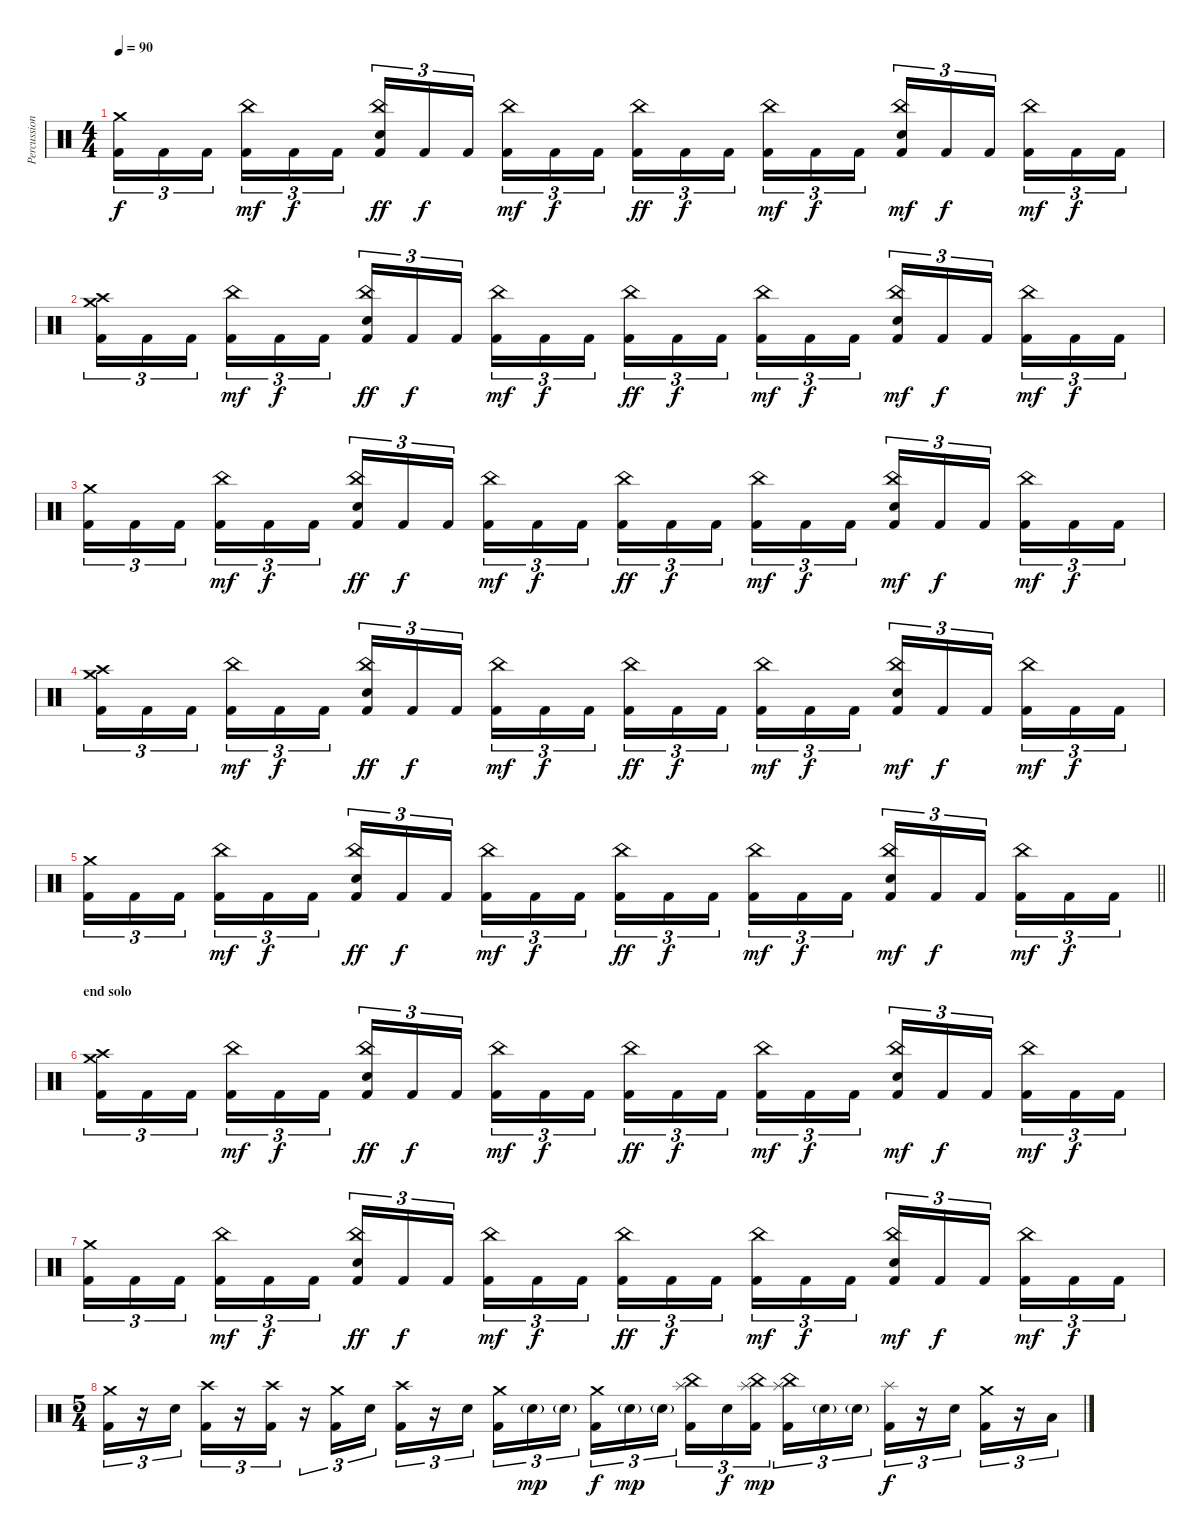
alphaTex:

\track ("Percussion" "Percussion") {instrument percussion}
\staff {score}
\articulation defaults
\ts (4 4)
\tempo 90
\clef neutral
\ks c
("Crash medium (hit)" "Kick (hit) 2").16{tu (3 2) dy f} "Kick (hit) 2".16{tu (3 2)} "Kick (hit) 2".16{tu (3 2) beam splitsecondary} ("China (hit)" "Kick (hit) 2").16{tu (3 2) dy mf} "Kick (hit) 2".16{tu (3 2) dy f} "Kick (hit) 2".16{tu (3 2)} ("China (hit)" "Electric Snare (hit)" "Kick (hit) 2").16{tu (3 2) dy ff} "Kick (hit) 2".16{tu (3 2) dy f} "Kick (hit) 2".16{tu (3 2) beam splitsecondary} ("China (hit)" "Kick (hit) 2").16{tu (3 2) dy mf} "Kick (hit) 2".16{tu (3 2) dy f} "Kick (hit) 2".16{tu (3 2)} ("China (hit)" "Kick (hit) 2").16{tu (3 2) dy ff} "Kick (hit) 2".16{tu (3 2) dy f} "Kick (hit) 2".16{tu (3 2) beam splitsecondary} ("China (hit)" "Kick (hit) 2").16{tu (3 2) dy mf} "Kick (hit) 2".16{tu (3 2) dy f} "Kick (hit) 2".16{tu (3 2)} ("China (hit)" "Electric Snare (hit)" "Kick (hit) 2").16{tu (3 2) dy mf} "Kick (hit) 2".16{tu (3 2) dy f} "Kick (hit) 2".16{tu (3 2) beam splitsecondary} ("China (hit)" "Kick (hit) 2").16{tu (3 2) dy mf} "Kick (hit) 2".16{tu (3 2) dy f} "Kick (hit) 2".16{tu (3 2)} |
("Crash medium (hit)" "Crash high (hit)" "Kick (hit) 2").16{tu (3 2)} "Kick (hit) 2".16{tu (3 2)} "Kick (hit) 2".16{tu (3 2) beam splitsecondary} ("China (hit)" "Kick (hit) 2").16{tu (3 2) dy mf} "Kick (hit) 2".16{tu (3 2) dy f} "Kick (hit) 2".16{tu (3 2)} ("China (hit)" "Electric Snare (hit)" "Kick (hit) 2").16{tu (3 2) dy ff} "Kick (hit) 2".16{tu (3 2) dy f} "Kick (hit) 2".16{tu (3 2) beam splitsecondary} ("China (hit)" "Kick (hit) 2").16{tu (3 2) dy mf} "Kick (hit) 2".16{tu (3 2) dy f} "Kick (hit) 2".16{tu (3 2)} ("China (hit)" "Kick (hit) 2").16{tu (3 2) dy ff} "Kick (hit) 2".16{tu (3 2) dy f} "Kick (hit) 2".16{tu (3 2) beam splitsecondary} ("China (hit)" "Kick (hit) 2").16{tu (3 2) dy mf} "Kick (hit) 2".16{tu (3 2) dy f} "Kick (hit) 2".16{tu (3 2)} ("China (hit)" "Electric Snare (hit)" "Kick (hit) 2").16{tu (3 2) dy mf} "Kick (hit) 2".16{tu (3 2) dy f} "Kick (hit) 2".16{tu (3 2) beam splitsecondary} ("China (hit)" "Kick (hit) 2").16{tu (3 2) dy mf} "Kick (hit) 2".16{tu (3 2) dy f} "Kick (hit) 2".16{tu (3 2)} |
("Crash medium (hit)" "Kick (hit) 2").16{tu (3 2)} "Kick (hit) 2".16{tu (3 2)} "Kick (hit) 2".16{tu (3 2) beam splitsecondary} ("China (hit)" "Kick (hit) 2").16{tu (3 2) dy mf} "Kick (hit) 2".16{tu (3 2) dy f} "Kick (hit) 2".16{tu (3 2)} ("China (hit)" "Electric Snare (hit)" "Kick (hit) 2").16{tu (3 2) dy ff} "Kick (hit) 2".16{tu (3 2) dy f} "Kick (hit) 2".16{tu (3 2) beam splitsecondary} ("China (hit)" "Kick (hit) 2").16{tu (3 2) dy mf} "Kick (hit) 2".16{tu (3 2) dy f} "Kick (hit) 2".16{tu (3 2)} ("China (hit)" "Kick (hit) 2").16{tu (3 2) dy ff} "Kick (hit) 2".16{tu (3 2) dy f} "Kick (hit) 2".16{tu (3 2) beam splitsecondary} ("China (hit)" "Kick (hit) 2").16{tu (3 2) dy mf} "Kick (hit) 2".16{tu (3 2) dy f} "Kick (hit) 2".16{tu (3 2)} ("China (hit)" "Electric Snare (hit)" "Kick (hit) 2").16{tu (3 2) dy mf} "Kick (hit) 2".16{tu (3 2) dy f} "Kick (hit) 2".16{tu (3 2) beam splitsecondary} ("China (hit)" "Kick (hit) 2").16{tu (3 2) dy mf} "Kick (hit) 2".16{tu (3 2) dy f} "Kick (hit) 2".16{tu (3 2)} |
("Crash medium (hit)" "Crash high (hit)" "Kick (hit) 2").16{tu (3 2)} "Kick (hit) 2".16{tu (3 2)} "Kick (hit) 2".16{tu (3 2) beam splitsecondary} ("China (hit)" "Kick (hit) 2").16{tu (3 2) dy mf} "Kick (hit) 2".16{tu (3 2) dy f} "Kick (hit) 2".16{tu (3 2)} ("China (hit)" "Electric Snare (hit)" "Kick (hit) 2").16{tu (3 2) dy ff} "Kick (hit) 2".16{tu (3 2) dy f} "Kick (hit) 2".16{tu (3 2) beam splitsecondary} ("China (hit)" "Kick (hit) 2").16{tu (3 2) dy mf} "Kick (hit) 2".16{tu (3 2) dy f} "Kick (hit) 2".16{tu (3 2)} ("China (hit)" "Kick (hit) 2").16{tu (3 2) dy ff} "Kick (hit) 2".16{tu (3 2) dy f} "Kick (hit) 2".16{tu (3 2) beam splitsecondary} ("China (hit)" "Kick (hit) 2").16{tu (3 2) dy mf} "Kick (hit) 2".16{tu (3 2) dy f} "Kick (hit) 2".16{tu (3 2)} ("China (hit)" "Electric Snare (hit)" "Kick (hit) 2").16{tu (3 2) dy mf} "Kick (hit) 2".16{tu (3 2) dy f} "Kick (hit) 2".16{tu (3 2) beam splitsecondary} ("China (hit)" "Kick (hit) 2").16{tu (3 2) dy mf} "Kick (hit) 2".16{tu (3 2) dy f} "Kick (hit) 2".16{tu (3 2)} |
\barLineRight lightlight
("Crash medium (hit)" "Kick (hit) 2").16{tu (3 2)} "Kick (hit) 2".16{tu (3 2)} "Kick (hit) 2".16{tu (3 2) beam splitsecondary} ("China (hit)" "Kick (hit) 2").16{tu (3 2) dy mf} "Kick (hit) 2".16{tu (3 2) dy f} "Kick (hit) 2".16{tu (3 2)} ("China (hit)" "Electric Snare (hit)" "Kick (hit) 2").16{tu (3 2) dy ff} "Kick (hit) 2".16{tu (3 2) dy f} "Kick (hit) 2".16{tu (3 2) beam splitsecondary} ("China (hit)" "Kick (hit) 2").16{tu (3 2) dy mf} "Kick (hit) 2".16{tu (3 2) dy f} "Kick (hit) 2".16{tu (3 2)} ("China (hit)" "Kick (hit) 2").16{tu (3 2) dy ff} "Kick (hit) 2".16{tu (3 2) dy f} "Kick (hit) 2".16{tu (3 2) beam splitsecondary} ("China (hit)" "Kick (hit) 2").16{tu (3 2) dy mf} "Kick (hit) 2".16{tu (3 2) dy f} "Kick (hit) 2".16{tu (3 2)} ("China (hit)" "Electric Snare (hit)" "Kick (hit) 2").16{tu (3 2) dy mf} "Kick (hit) 2".16{tu (3 2) dy f} "Kick (hit) 2".16{tu (3 2) beam splitsecondary} ("China (hit)" "Kick (hit) 2").16{tu (3 2) dy mf} "Kick (hit) 2".16{tu (3 2) dy f} "Kick (hit) 2".16{tu (3 2)} |
\section ("" "end solo")
("Crash medium (hit)" "Crash high (hit)" "Kick (hit) 2").16{tu (3 2)} "Kick (hit) 2".16{tu (3 2)} "Kick (hit) 2".16{tu (3 2) beam splitsecondary} ("China (hit)" "Kick (hit) 2").16{tu (3 2) dy mf} "Kick (hit) 2".16{tu (3 2) dy f} "Kick (hit) 2".16{tu (3 2)} ("China (hit)" "Electric Snare (hit)" "Kick (hit) 2").16{tu (3 2) dy ff} "Kick (hit) 2".16{tu (3 2) dy f} "Kick (hit) 2".16{tu (3 2) beam splitsecondary} ("China (hit)" "Kick (hit) 2").16{tu (3 2) dy mf} "Kick (hit) 2".16{tu (3 2) dy f} "Kick (hit) 2".16{tu (3 2)} ("China (hit)" "Kick (hit) 2").16{tu (3 2) dy ff} "Kick (hit) 2".16{tu (3 2) dy f} "Kick (hit) 2".16{tu (3 2) beam splitsecondary} ("China (hit)" "Kick (hit) 2").16{tu (3 2) dy mf} "Kick (hit) 2".16{tu (3 2) dy f} "Kick (hit) 2".16{tu (3 2)} ("China (hit)" "Electric Snare (hit)" "Kick (hit) 2").16{tu (3 2) dy mf} "Kick (hit) 2".16{tu (3 2) dy f} "Kick (hit) 2".16{tu (3 2) beam splitsecondary} ("China (hit)" "Kick (hit) 2").16{tu (3 2) dy mf} "Kick (hit) 2".16{tu (3 2) dy f} "Kick (hit) 2".16{tu (3 2)} |
("Crash medium (hit)" "Kick (hit) 2").16{tu (3 2)} "Kick (hit) 2".16{tu (3 2)} "Kick (hit) 2".16{tu (3 2) beam splitsecondary} ("China (hit)" "Kick (hit) 2").16{tu (3 2) dy mf} "Kick (hit) 2".16{tu (3 2) dy f} "Kick (hit) 2".16{tu (3 2)} ("China (hit)" "Electric Snare (hit)" "Kick (hit) 2").16{tu (3 2) dy ff} "Kick (hit) 2".16{tu (3 2) dy f} "Kick (hit) 2".16{tu (3 2) beam splitsecondary} ("China (hit)" "Kick (hit) 2").16{tu (3 2) dy mf} "Kick (hit) 2".16{tu (3 2) dy f} "Kick (hit) 2".16{tu (3 2)} ("China (hit)" "Kick (hit) 2").16{tu (3 2) dy ff} "Kick (hit) 2".16{tu (3 2) dy f} "Kick (hit) 2".16{tu (3 2) beam splitsecondary} ("China (hit)" "Kick (hit) 2").16{tu (3 2) dy mf} "Kick (hit) 2".16{tu (3 2) dy f} "Kick (hit) 2".16{tu (3 2)} ("China (hit)" "Electric Snare (hit)" "Kick (hit) 2").16{tu (3 2) dy mf} "Kick (hit) 2".16{tu (3 2) dy f} "Kick (hit) 2".16{tu (3 2) beam splitsecondary} ("China (hit)" "Kick (hit) 2").16{tu (3 2) dy mf} "Kick (hit) 2".16{tu (3 2) dy f} "Kick (hit) 2".16{tu (3 2)} |
\ts (5 4)
("Crash medium (hit)" "Kick (hit) 2").16{tu (3 2)} r.16{tu (3 2)} "Electric Snare (hit)".16{tu (3 2)} ("Crash high (hit)" "Kick (hit) 2").16{tu (3 2)} r.16{tu (3 2)} ("Crash high (hit)" "Kick (hit) 2").16{tu (3 2)} r.16{tu (3 2)} ("Crash medium (hit)" "Kick (hit) 2").16{tu (3 2)} "Electric Snare (hit)".16{tu (3 2) beam splitsecondary} ("Crash high (hit)" "Kick (hit) 2").16{tu (3 2)} r.16{tu (3 2)} "Electric Snare (hit)".16{tu (3 2)} ("Crash medium (hit)" "Kick (hit) 2").16{tu (3 2)} "Electric Snare (hit)"{g}.16{tu (3 2) dy mp} "Electric Snare (hit)"{g}.16{tu (3 2) beam splitsecondary} ("Crash medium (hit)" "Kick (hit) 2").16{tu (3 2) dy f} "Electric Snare (hit)"{g}.16{tu (3 2) dy mp} "Electric Snare (hit)"{g}.16{tu (3 2)} ("Splash (hit)" "China (hit)" "Kick (hit) 2").16{tu (3 2)} "Electric Snare (hit)".16{tu (3 2) dy f} ("China (hit)" "Splash (hit)" "Kick (hit) 2").16{tu (3 2) dy mp beam splitsecondary} ("China (hit)" "Splash (hit)" "Kick (hit) 2").16{tu (3 2)} "Electric Snare (hit)"{g}.16{tu (3 2)} "Electric Snare (hit)"{g}.16{tu (3 2)} ("Splash (hit)" "Kick (hit) 2").16{tu (3 2) dy f} r.16{tu (3 2)} "Electric Snare (hit)".16{tu (3 2)} ("Crash medium (hit)" "Kick (hit) 2").16{tu (3 2)} r.16{tu (3 2)} "Low Tom (hit)".16{tu (3 2)}
